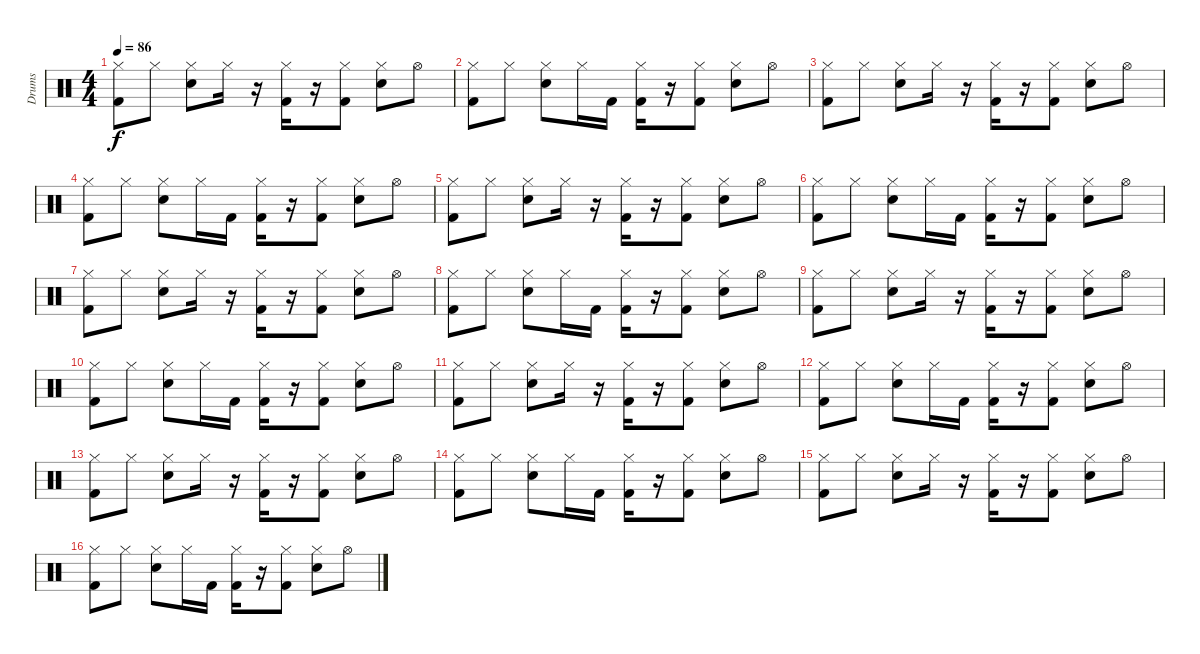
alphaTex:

\track ("Drums" "Drums") {instrument percussion}
\staff {score}
\articulation defaults
\ts (4 4)
\tempo 86
\clef neutral
\ks c
("Kick (hit) 2" "Hi-Hat (closed)").8{dy f} "Hi-Hat (closed)".8 ("Snare (hit) 2" "Hi-Hat (closed)").8 "Hi-Hat (closed)".16 r.16 ("Kick (hit) 2" "Hi-Hat (closed)").16 r.16 ("Kick (hit) 2" "Hi-Hat (closed)").8 ("Snare (hit) 2" "Hi-Hat (closed)").8 "Hi-Hat (open)".8 |
("Kick (hit) 2" "Hi-Hat (closed)").8 "Hi-Hat (closed)".8 ("Snare (hit) 2" "Hi-Hat (closed)").8 "Hi-Hat (closed)".16 "Kick (hit) 2".16 ("Kick (hit) 2" "Hi-Hat (closed)").16 r.16 ("Kick (hit) 2" "Hi-Hat (closed)").8 ("Snare (hit) 2" "Hi-Hat (closed)").8 "Hi-Hat (open)".8 |
("Kick (hit) 2" "Hi-Hat (closed)").8 "Hi-Hat (closed)".8 ("Snare (hit) 2" "Hi-Hat (closed)").8 "Hi-Hat (closed)".16 r.16 ("Kick (hit) 2" "Hi-Hat (closed)").16 r.16 ("Kick (hit) 2" "Hi-Hat (closed)").8 ("Snare (hit) 2" "Hi-Hat (closed)").8 "Hi-Hat (open)".8 |
("Kick (hit) 2" "Hi-Hat (closed)").8 "Hi-Hat (closed)".8 ("Snare (hit) 2" "Hi-Hat (closed)").8 "Hi-Hat (closed)".16 "Kick (hit) 2".16 ("Kick (hit) 2" "Hi-Hat (closed)").16 r.16 ("Kick (hit) 2" "Hi-Hat (closed)").8 ("Snare (hit) 2" "Hi-Hat (closed)").8 "Hi-Hat (open)".8 |
("Kick (hit) 2" "Hi-Hat (closed)").8 "Hi-Hat (closed)".8 ("Snare (hit) 2" "Hi-Hat (closed)").8 "Hi-Hat (closed)".16 r.16 ("Kick (hit) 2" "Hi-Hat (closed)").16 r.16 ("Kick (hit) 2" "Hi-Hat (closed)").8 ("Snare (hit) 2" "Hi-Hat (closed)").8 "Hi-Hat (open)".8 |
("Kick (hit) 2" "Hi-Hat (closed)").8 "Hi-Hat (closed)".8 ("Snare (hit) 2" "Hi-Hat (closed)").8 "Hi-Hat (closed)".16 "Kick (hit) 2".16 ("Kick (hit) 2" "Hi-Hat (closed)").16 r.16 ("Kick (hit) 2" "Hi-Hat (closed)").8 ("Snare (hit) 2" "Hi-Hat (closed)").8 "Hi-Hat (open)".8 |
("Kick (hit) 2" "Hi-Hat (closed)").8 "Hi-Hat (closed)".8 ("Snare (hit) 2" "Hi-Hat (closed)").8 "Hi-Hat (closed)".16 r.16 ("Kick (hit) 2" "Hi-Hat (closed)").16 r.16 ("Kick (hit) 2" "Hi-Hat (closed)").8 ("Snare (hit) 2" "Hi-Hat (closed)").8 "Hi-Hat (open)".8 |
("Kick (hit) 2" "Hi-Hat (closed)").8 "Hi-Hat (closed)".8 ("Snare (hit) 2" "Hi-Hat (closed)").8 "Hi-Hat (closed)".16 "Kick (hit) 2".16 ("Kick (hit) 2" "Hi-Hat (closed)").16 r.16 ("Kick (hit) 2" "Hi-Hat (closed)").8 ("Snare (hit) 2" "Hi-Hat (closed)").8 "Hi-Hat (open)".8 |
("Kick (hit) 2" "Hi-Hat (closed)").8 "Hi-Hat (closed)".8 ("Snare (hit) 2" "Hi-Hat (closed)").8 "Hi-Hat (closed)".16 r.16 ("Kick (hit) 2" "Hi-Hat (closed)").16 r.16 ("Kick (hit) 2" "Hi-Hat (closed)").8 ("Snare (hit) 2" "Hi-Hat (closed)").8 "Hi-Hat (open)".8 |
("Kick (hit) 2" "Hi-Hat (closed)").8 "Hi-Hat (closed)".8 ("Snare (hit) 2" "Hi-Hat (closed)").8 "Hi-Hat (closed)".16 "Kick (hit) 2".16 ("Kick (hit) 2" "Hi-Hat (closed)").16 r.16 ("Kick (hit) 2" "Hi-Hat (closed)").8 ("Snare (hit) 2" "Hi-Hat (closed)").8 "Hi-Hat (open)".8 |
("Kick (hit) 2" "Hi-Hat (closed)").8 "Hi-Hat (closed)".8 ("Snare (hit) 2" "Hi-Hat (closed)").8 "Hi-Hat (closed)".16 r.16 ("Kick (hit) 2" "Hi-Hat (closed)").16 r.16 ("Kick (hit) 2" "Hi-Hat (closed)").8 ("Snare (hit) 2" "Hi-Hat (closed)").8 "Hi-Hat (open)".8 |
("Kick (hit) 2" "Hi-Hat (closed)").8 "Hi-Hat (closed)".8 ("Snare (hit) 2" "Hi-Hat (closed)").8 "Hi-Hat (closed)".16 "Kick (hit) 2".16 ("Kick (hit) 2" "Hi-Hat (closed)").16 r.16 ("Kick (hit) 2" "Hi-Hat (closed)").8 ("Snare (hit) 2" "Hi-Hat (closed)").8 "Hi-Hat (open)".8 |
("Kick (hit) 2" "Hi-Hat (closed)").8 "Hi-Hat (closed)".8 ("Snare (hit) 2" "Hi-Hat (closed)").8 "Hi-Hat (closed)".16 r.16 ("Kick (hit) 2" "Hi-Hat (closed)").16 r.16 ("Kick (hit) 2" "Hi-Hat (closed)").8 ("Snare (hit) 2" "Hi-Hat (closed)").8 "Hi-Hat (open)".8 |
("Kick (hit) 2" "Hi-Hat (closed)").8 "Hi-Hat (closed)".8 ("Snare (hit) 2" "Hi-Hat (closed)").8 "Hi-Hat (closed)".16 "Kick (hit) 2".16 ("Kick (hit) 2" "Hi-Hat (closed)").16 r.16 ("Kick (hit) 2" "Hi-Hat (closed)").8 ("Snare (hit) 2" "Hi-Hat (closed)").8 "Hi-Hat (open)".8 |
("Kick (hit) 2" "Hi-Hat (closed)").8 "Hi-Hat (closed)".8 ("Snare (hit) 2" "Hi-Hat (closed)").8 "Hi-Hat (closed)".16 r.16 ("Kick (hit) 2" "Hi-Hat (closed)").16 r.16 ("Kick (hit) 2" "Hi-Hat (closed)").8 ("Snare (hit) 2" "Hi-Hat (closed)").8 "Hi-Hat (open)".8 |
("Kick (hit) 2" "Hi-Hat (closed)").8 "Hi-Hat (closed)".8 ("Snare (hit) 2" "Hi-Hat (closed)").8 "Hi-Hat (closed)".16 "Kick (hit) 2".16 ("Kick (hit) 2" "Hi-Hat (closed)").16 r.16 ("Kick (hit) 2" "Hi-Hat (closed)").8 ("Snare (hit) 2" "Hi-Hat (closed)").8 "Hi-Hat (open)".8
